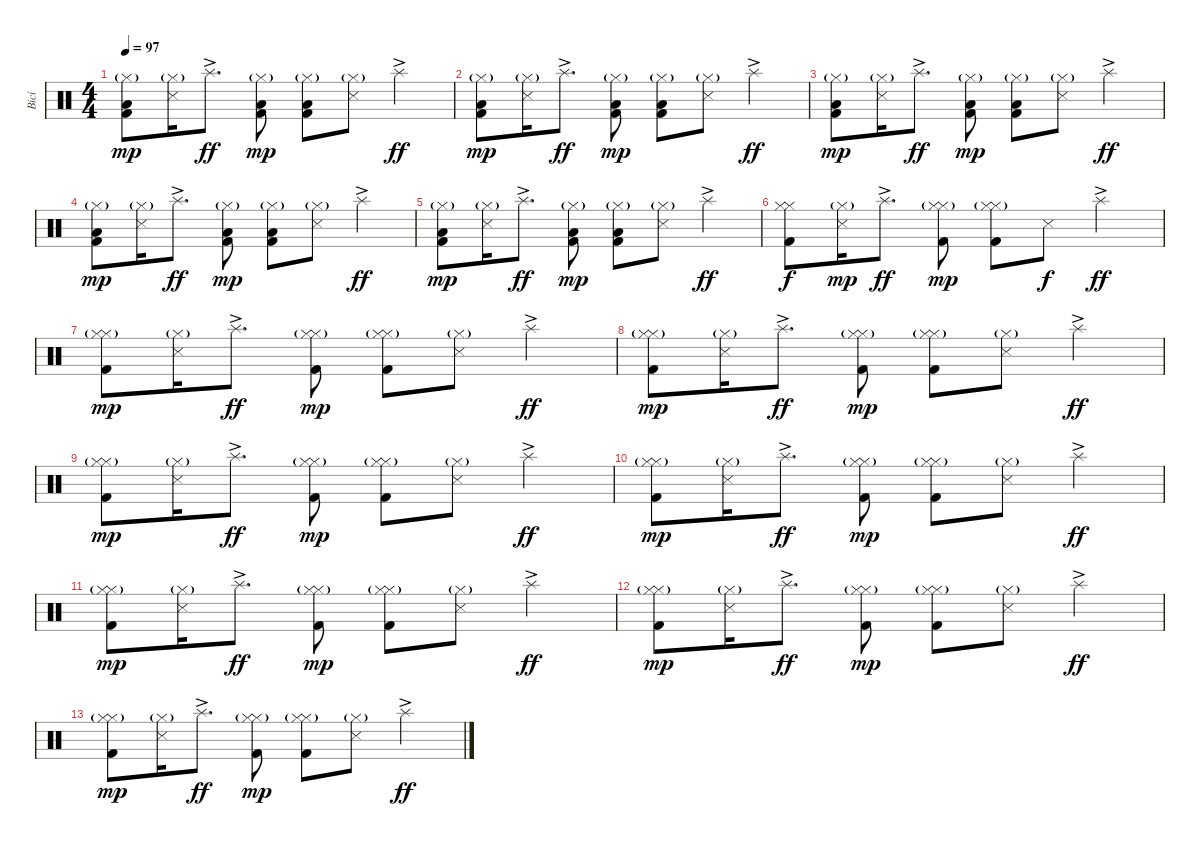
\track ("Bicí" "Bicí") {instrument percussion}
\staff {score}
\articulation defaults
\ts (4 4)
\tempo 97
\clef neutral
\ks c
("Hi-Hat (closed)"{g} "Low Floor Tom (hit)" "Kick (hit) 2").8{dy mp} ("Hi-Hat (closed)"{g} "Snare (side stick) 3").16 "Splash (hit)"{ac}.8{d dy ff} ("Hi-Hat (closed)"{g} "Low Floor Tom (hit)" "Kick (hit) 2").8{dy mp} ("Hi-Hat (closed)"{g} "Low Floor Tom (hit)" "Kick (hit) 2").8 ("Hi-Hat (closed)"{g} "Snare (side stick) 3").8 "Splash (hit)"{ac}.4{dy ff} |
("Hi-Hat (closed)"{g} "Low Floor Tom (hit)" "Kick (hit) 2").8{dy mp} ("Hi-Hat (closed)"{g} "Snare (side stick) 3").16 "Splash (hit)"{ac}.8{d dy ff} ("Hi-Hat (closed)"{g} "Low Floor Tom (hit)" "Kick (hit) 2").8{dy mp} ("Hi-Hat (closed)"{g} "Low Floor Tom (hit)" "Kick (hit) 2").8 ("Hi-Hat (closed)"{g} "Snare (side stick) 3").8 "Splash (hit)"{ac}.4{dy ff} |
("Hi-Hat (closed)"{g} "Low Floor Tom (hit)" "Kick (hit) 2").8{dy mp} ("Hi-Hat (closed)"{g} "Snare (side stick) 3").16 "Splash (hit)"{ac}.8{d dy ff} ("Hi-Hat (closed)"{g} "Low Floor Tom (hit)" "Kick (hit) 2").8{dy mp} ("Hi-Hat (closed)"{g} "Low Floor Tom (hit)" "Kick (hit) 2").8 ("Hi-Hat (closed)"{g} "Snare (side stick) 3").8 "Splash (hit)"{ac}.4{dy ff} |
("Hi-Hat (closed)"{g} "Low Floor Tom (hit)" "Kick (hit) 2").8{dy mp} ("Hi-Hat (closed)"{g} "Snare (side stick) 3").16 "Splash (hit)"{ac}.8{d dy ff} ("Hi-Hat (closed)"{g} "Low Floor Tom (hit)" "Kick (hit) 2").8{dy mp} ("Hi-Hat (closed)"{g} "Low Floor Tom (hit)" "Kick (hit) 2").8 ("Hi-Hat (closed)"{g} "Snare (side stick) 3").8 "Splash (hit)"{ac}.4{dy ff} |
("Hi-Hat (closed)"{g} "Low Floor Tom (hit)" "Kick (hit) 2").8{dy mp} ("Hi-Hat (closed)"{g} "Snare (side stick) 3").16 "Splash (hit)"{ac}.8{d dy ff} ("Hi-Hat (closed)"{g} "Low Floor Tom (hit)" "Kick (hit) 2").8{dy mp} ("Hi-Hat (closed)"{g} "Low Floor Tom (hit)" "Kick (hit) 2").8 ("Hi-Hat (closed)"{g} "Snare (side stick) 3").8 "Splash (hit)"{ac}.4{dy ff} |
("Hi-Hat (closed)" "Hi-Hat (closed)" "Kick (hit) 2").8{dy f} ("Hi-Hat (closed)"{g} "Snare (side stick) 3").16{dy mp} "Splash (hit)"{ac}.8{d dy ff} ("Hi-Hat (closed)"{g} "Hi-Hat (closed)" "Kick (hit) 2").8{dy mp} ("Hi-Hat (closed)"{g} "Hi-Hat (closed)" "Kick (hit) 2").8 "Snare (side stick) 3".8{dy f} "Splash (hit)"{ac}.4{dy ff} |
("Hi-Hat (closed)"{g} "Hi-Hat (closed)" "Kick (hit) 2").8{dy mp} ("Hi-Hat (closed)"{g} "Snare (side stick) 3").16 "Splash (hit)"{ac}.8{d dy ff} ("Hi-Hat (closed)"{g} "Hi-Hat (closed)" "Kick (hit) 2").8{dy mp} ("Hi-Hat (closed)"{g} "Hi-Hat (closed)" "Kick (hit) 2").8 ("Hi-Hat (closed)"{g} "Snare (side stick) 3").8 "Splash (hit)"{ac}.4{dy ff} |
("Hi-Hat (closed)"{g} "Hi-Hat (closed)" "Kick (hit) 2").8{dy mp} ("Hi-Hat (closed)"{g} "Snare (side stick) 3").16 "Splash (hit)"{ac}.8{d dy ff} ("Hi-Hat (closed)"{g} "Hi-Hat (closed)" "Kick (hit) 2").8{dy mp} ("Hi-Hat (closed)"{g} "Hi-Hat (closed)" "Kick (hit) 2").8 ("Hi-Hat (closed)"{g} "Snare (side stick) 3").8 "Splash (hit)"{ac}.4{dy ff} |
("Hi-Hat (closed)"{g} "Hi-Hat (closed)" "Kick (hit) 2").8{dy mp} ("Hi-Hat (closed)"{g} "Snare (side stick) 3").16 "Splash (hit)"{ac}.8{d dy ff} ("Hi-Hat (closed)"{g} "Hi-Hat (closed)" "Kick (hit) 2").8{dy mp} ("Hi-Hat (closed)"{g} "Hi-Hat (closed)" "Kick (hit) 2").8 ("Hi-Hat (closed)"{g} "Snare (side stick) 3").8 "Splash (hit)"{ac}.4{dy ff} |
("Hi-Hat (closed)"{g} "Hi-Hat (closed)" "Kick (hit) 2").8{dy mp} ("Hi-Hat (closed)"{g} "Snare (side stick) 3").16 "Splash (hit)"{ac}.8{d dy ff} ("Hi-Hat (closed)"{g} "Hi-Hat (closed)" "Kick (hit) 2").8{dy mp} ("Hi-Hat (closed)"{g} "Hi-Hat (closed)" "Kick (hit) 2").8 ("Hi-Hat (closed)"{g} "Snare (side stick) 3").8 "Splash (hit)"{ac}.4{dy ff} |
("Hi-Hat (closed)"{g} "Hi-Hat (closed)" "Kick (hit) 2").8{dy mp} ("Hi-Hat (closed)"{g} "Snare (side stick) 3").16 "Splash (hit)"{ac}.8{d dy ff} ("Hi-Hat (closed)"{g} "Hi-Hat (closed)" "Kick (hit) 2").8{dy mp} ("Hi-Hat (closed)"{g} "Hi-Hat (closed)" "Kick (hit) 2").8 ("Hi-Hat (closed)"{g} "Snare (side stick) 3").8 "Splash (hit)"{ac}.4{dy ff} |
("Hi-Hat (closed)"{g} "Hi-Hat (closed)" "Kick (hit) 2").8{dy mp} ("Hi-Hat (closed)"{g} "Snare (side stick) 3").16 "Splash (hit)"{ac}.8{d dy ff} ("Hi-Hat (closed)"{g} "Hi-Hat (closed)" "Kick (hit) 2").8{dy mp} ("Hi-Hat (closed)"{g} "Hi-Hat (closed)" "Kick (hit) 2").8 ("Hi-Hat (closed)"{g} "Snare (side stick) 3").8 "Splash (hit)"{ac}.4{dy ff} |
("Hi-Hat (closed)"{g} "Hi-Hat (closed)" "Kick (hit) 2").8{dy mp} ("Hi-Hat (closed)"{g} "Snare (side stick) 3").16 "Splash (hit)"{ac}.8{d dy ff} ("Hi-Hat (closed)"{g} "Hi-Hat (closed)" "Kick (hit) 2").8{dy mp} ("Hi-Hat (closed)"{g} "Hi-Hat (closed)" "Kick (hit) 2").8 ("Hi-Hat (closed)"{g} "Snare (side stick) 3").8 "Splash (hit)"{ac}.4{dy ff}
